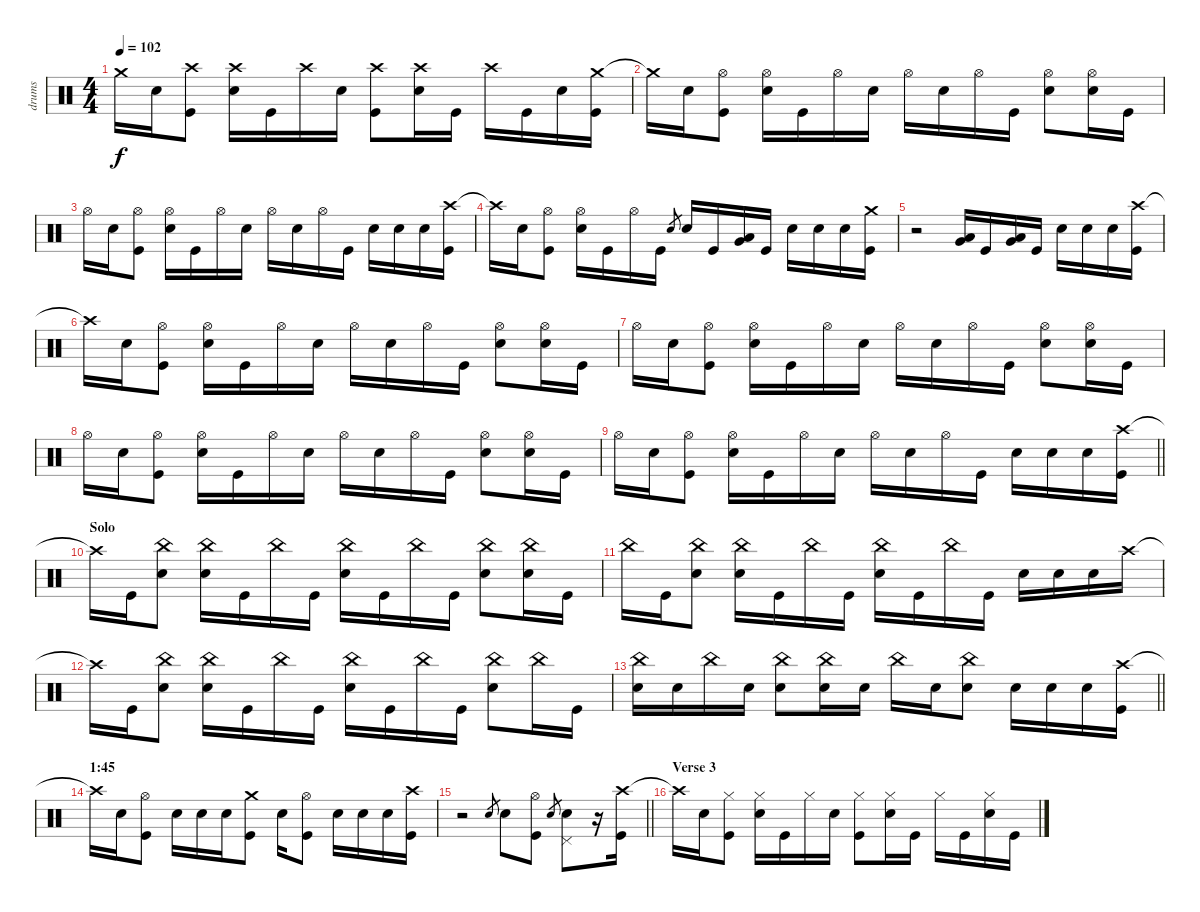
\track ("drums" "drums") {instrument percussion}
\staff {score}
\articulation defaults
\ts (4 4)
\tempo 102
\clef neutral
\ks c "Crash medium (hit)"{t}.16{dy f} "Snare (hit) 2".16
("Crash high (hit)" "Kick (hit)").8 ("Crash high (hit)" "Snare (hit) 2").16 "Kick (hit)".16 "Crash high (hit)".16 "Snare (hit) 2".16 ("Crash high (hit)" "Kick (hit)").8 ("Crash high (hit)" "Snare (hit) 2").16 "Kick (hit)".16 "Crash high (hit)".16 "Kick (hit)".16 "Snare (hit) 2".16 ("Crash medium (hit)" "Kick (hit)").16 |
"Crash medium (hit)"{t}.16 "Snare (hit) 2".16 ("Kick (hit)" "Hi-Hat (open)").8 ("Snare (hit) 2" "Hi-Hat (open)").16 "Kick (hit)".16 "Hi-Hat (open)".16 "Snare (hit) 2".16 "Hi-Hat (open)".16 "Snare (hit) 2".16 "Hi-Hat (open)".16 "Kick (hit)".16 ("Snare (hit) 2" "Hi-Hat (open)").8 ("Snare (hit) 2" "Hi-Hat (open)").16 "Kick (hit)".16 |
"Hi-Hat (open)".16 "Snare (hit) 2".16 ("Kick (hit)" "Hi-Hat (open)").8 ("Snare (hit) 2" "Hi-Hat (open)").16 "Kick (hit)".16 "Hi-Hat (open)".16 "Snare (hit) 2".16 "Hi-Hat (open)".16 "Snare (hit) 2".16 "Hi-Hat (open)".16 "Kick (hit)".16 "Snare (hit) 2".16 "Snare (hit) 2".16 "Snare (hit) 2".16 ("Crash high (hit)" "Kick (hit)").16 |
"Crash high (hit)"{t}.16 "Snare (hit) 2".16 ("Kick (hit)" "Hi-Hat (open)").8 ("Snare (hit) 2" "Hi-Hat (open)").16 "Kick (hit)".16 "Hi-Hat (open)".16 "Kick (hit)".16 "Snare (hit) 2".8{gr} "Snare (hit) 2".16 "Kick (hit)".16 ("Very Low Tom (hit)" "Low Tom (hit)").16 "Kick (hit)".16 "Snare (hit) 2".16 "Snare (hit) 2".16 "Snare (hit) 2".16 ("Kick (hit)" "Crash medium (hit)").16 |
r.2 ("Very Low Tom (hit)" "Low Tom (hit)").16 "Kick (hit)".16 ("Very Low Tom (hit)" "Low Tom (hit)").16 "Kick (hit)".16 "Snare (hit) 2".16 "Snare (hit) 2".16 "Snare (hit) 2".16 ("Crash high (hit)" "Kick (hit)").16 |
"Crash high (hit)"{t}.16 "Snare (hit) 2".16 ("Kick (hit)" "Hi-Hat (open)").8 ("Snare (hit) 2" "Hi-Hat (open)").16 "Kick (hit)".16 "Hi-Hat (open)".16 "Snare (hit) 2".16 "Hi-Hat (open)".16 "Snare (hit) 2".16 "Hi-Hat (open)".16 "Kick (hit)".16 ("Snare (hit) 2" "Hi-Hat (open)").8 ("Snare (hit) 2" "Hi-Hat (open)").16 "Kick (hit)".16 |
"Hi-Hat (open)".16 "Snare (hit) 2".16 ("Kick (hit)" "Hi-Hat (open)").8 ("Snare (hit) 2" "Hi-Hat (open)").16 "Kick (hit)".16 "Hi-Hat (open)".16 "Snare (hit) 2".16 "Hi-Hat (open)".16 "Snare (hit) 2".16 "Hi-Hat (open)".16 "Kick (hit)".16 ("Snare (hit) 2" "Hi-Hat (open)").8 ("Snare (hit) 2" "Hi-Hat (open)").16 "Kick (hit)".16 |
"Hi-Hat (open)".16 "Snare (hit) 2".16 ("Kick (hit)" "Hi-Hat (open)").8 ("Snare (hit) 2" "Hi-Hat (open)").16 "Kick (hit)".16 "Hi-Hat (open)".16 "Snare (hit) 2".16 "Hi-Hat (open)".16 "Snare (hit) 2".16 "Hi-Hat (open)".16 "Kick (hit)".16 ("Snare (hit) 2" "Hi-Hat (open)").8 ("Snare (hit) 2" "Hi-Hat (open)").16 "Kick (hit)".16 |
\barLineRight lightlight "Hi-Hat (open)".16 "Snare (hit) 2".16
("Kick (hit)" "Hi-Hat (open)").8 ("Snare (hit) 2" "Hi-Hat (open)").16 "Kick (hit)".16 "Hi-Hat (open)".16 "Snare (hit) 2".16 "Hi-Hat (open)".16 "Snare (hit) 2".16 "Hi-Hat (open)".16 "Kick (hit)".16 "Snare (hit) 2".16 "Snare (hit) 2".16 "Snare (hit) 2".16 ("Crash high (hit)" "Kick (hit)").16 |
\section ("" "Solo")
"Crash high (hit)"{t}.16 "Kick (hit)".16 ("Snare (hit) 2" "China (hit)").8 ("Snare (hit) 2" "China (hit)").16 "Kick (hit)".16 "China (hit)".16 "Kick (hit)".16 ("Snare (hit) 2" "China (hit)").16 "Kick (hit)".16 "China (hit)".16 "Kick (hit)".16 ("Snare (hit) 2" "China (hit)").8 ("Snare (hit) 2" "China (hit)").16 "Kick (hit)".16 |
"China (hit)".16 "Kick (hit)".16 ("Snare (hit) 2" "China (hit)").8 ("Snare (hit) 2" "China (hit)").16 "Kick (hit)".16 "China (hit)".16 "Kick (hit)".16 ("Snare (hit) 2" "China (hit)").16 "Kick (hit)".16 "China (hit)".16 "Kick (hit)".16 "Snare (hit) 2".16 "Snare (hit) 2".16 "Snare (hit) 2".16 "Crash high (hit)".16 |
"Crash high (hit)"{t}.16 "Kick (hit)".16 ("Snare (hit) 2" "China (hit)").8 ("Snare (hit) 2" "China (hit)").16 "Kick (hit)".16 "China (hit)".16 "Kick (hit)".16 ("Snare (hit) 2" "China (hit)").16 "Kick (hit)".16 "China (hit)".16 "Kick (hit)".16 ("Snare (hit) 2" "China (hit)").8 "China (hit)".16 "Kick (hit)".16 |
\barLineRight lightlight
("Snare (hit) 2" "China (hit)").16 "Snare (hit) 2".16 "China (hit)".16 "Snare (hit) 2".16 ("Snare (hit) 2" "China (hit)").8 ("Snare (hit) 2" "China (hit)").16 "Snare (hit) 2".16 "China (hit)".16 "Snare (hit) 2".16 ("Snare (hit) 2" "China (hit)").8 "Snare (hit) 2".16 "Snare (hit) 2".16 "Snare (hit) 2".16 ("Crash high (hit)" "Kick (hit)").16 |
\section ("" "1:45")
"Crash high (hit)"{t}.16 "Snare (hit) 2".16 ("Kick (hit)" "Hi-Hat (open)").8 "Snare (hit) 2".16 "Snare (hit) 2".16 "Snare (hit) 2".16 ("Kick (hit)" "Crash medium (hit)").8 "Snare (hit) 2".16 ("Kick (hit)" "Hi-Hat (open)").8 "Snare (hit) 2".16 "Snare (hit) 2".16 "Snare (hit) 2".16 ("Kick (hit)" "Crash high (hit)").16 |
\barLineRight lightlight
r.2 "Snare (hit) 2".8{gr} "Snare (hit) 2".8 ("Kick (hit)" "Hi-Hat (open)").8 "Snare (hit) 2".8{gr} ("Snare (hit) 2" "Pedal Hi-Hat (hit)").8 r.16 ("Crash high (hit)" "Kick (hit)").16 |
\section ("" "Verse 3")
"Crash high (hit)"{t}.16 "Snare (hit) 2".16 ("Hi-Hat (closed)" "Kick (hit)").8 ("Hi-Hat (closed)" "Snare (hit) 2").16 "Kick (hit)".16 "Hi-Hat (closed)".16 "Snare (hit) 2".16 ("Hi-Hat (closed)" "Kick (hit)").8 ("Hi-Hat (closed)" "Snare (hit) 2").16 "Kick (hit)".16 "Hi-Hat (closed)".16 "Kick (hit)".16 ("Hi-Hat (closed)" "Snare (hit) 2").16 "Kick (hit)".16
